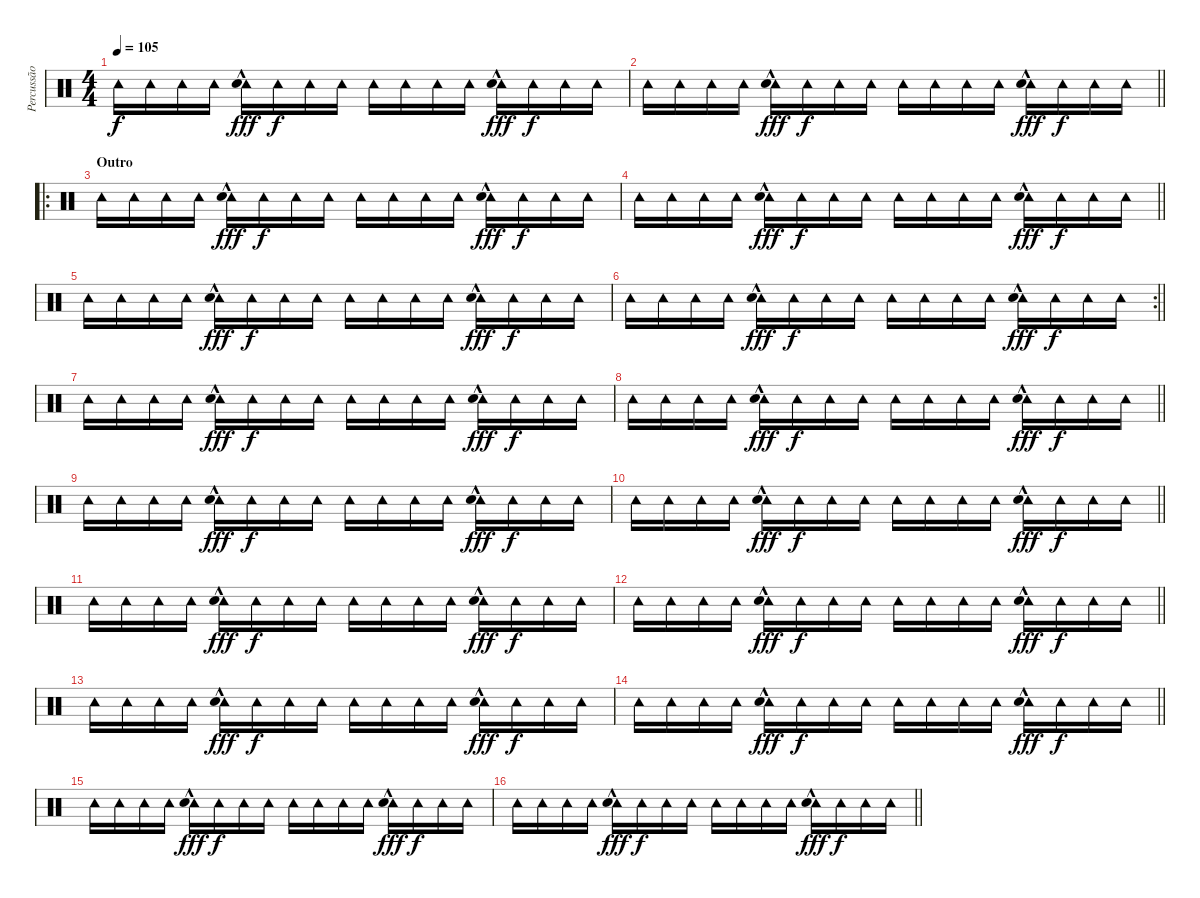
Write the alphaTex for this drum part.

\track ("Percussão" "Percussão") {instrument percussion}
\staff {score}
\articulation defaults
\ts (4 4)
\tempo 105
\clef neutral
\ks c "Tambourine (hit)".16{dy f} "Tambourine (hit)".16 "Tambourine (hit)".16 "Tambourine (hit)".16
("Tambourine (hit)" "Hand Clap (hit)"{hac}).16{dy fff} "Tambourine (hit)".16{dy f} "Tambourine (hit)".16 "Tambourine (hit)".16 "Tambourine (hit)".16 "Tambourine (hit)".16 "Tambourine (hit)".16 "Tambourine (hit)".16 ("Tambourine (hit)" "Hand Clap (hit)"{hac}).16{dy fff} "Tambourine (hit)".16{dy f} "Tambourine (hit)".16 "Tambourine (hit)".16 |
\barLineRight lightlight "Tambourine (hit)".16 "Tambourine (hit)".16 "Tambourine (hit)".16 "Tambourine (hit)".16
("Tambourine (hit)" "Hand Clap (hit)"{hac}).16{dy fff} "Tambourine (hit)".16{dy f} "Tambourine (hit)".16 "Tambourine (hit)".16 "Tambourine (hit)".16 "Tambourine (hit)".16 "Tambourine (hit)".16 "Tambourine (hit)".16 ("Tambourine (hit)" "Hand Clap (hit)"{hac}).16{dy fff} "Tambourine (hit)".16{dy f} "Tambourine (hit)".16 "Tambourine (hit)".16 |
\ro
\section ("" "Outro")
"Tambourine (hit)".16 "Tambourine (hit)".16 "Tambourine (hit)".16 "Tambourine (hit)".16 ("Tambourine (hit)" "Hand Clap (hit)"{hac}).16{dy fff} "Tambourine (hit)".16{dy f} "Tambourine (hit)".16 "Tambourine (hit)".16 "Tambourine (hit)".16 "Tambourine (hit)".16 "Tambourine (hit)".16 "Tambourine (hit)".16 ("Tambourine (hit)" "Hand Clap (hit)"{hac}).16{dy fff} "Tambourine (hit)".16{dy f} "Tambourine (hit)".16 "Tambourine (hit)".16 |
\barLineRight lightlight "Tambourine (hit)".16 "Tambourine (hit)".16 "Tambourine (hit)".16 "Tambourine (hit)".16
("Tambourine (hit)" "Hand Clap (hit)"{hac}).16{dy fff} "Tambourine (hit)".16{dy f} "Tambourine (hit)".16 "Tambourine (hit)".16 "Tambourine (hit)".16 "Tambourine (hit)".16 "Tambourine (hit)".16 "Tambourine (hit)".16 ("Tambourine (hit)" "Hand Clap (hit)"{hac}).16{dy fff} "Tambourine (hit)".16{dy f} "Tambourine (hit)".16 "Tambourine (hit)".16 |
"Tambourine (hit)".16 "Tambourine (hit)".16 "Tambourine (hit)".16 "Tambourine (hit)".16 ("Tambourine (hit)" "Hand Clap (hit)"{hac}).16{dy fff} "Tambourine (hit)".16{dy f} "Tambourine (hit)".16 "Tambourine (hit)".16 "Tambourine (hit)".16 "Tambourine (hit)".16 "Tambourine (hit)".16 "Tambourine (hit)".16 ("Tambourine (hit)" "Hand Clap (hit)"{hac}).16{dy fff} "Tambourine (hit)".16{dy f} "Tambourine (hit)".16 "Tambourine (hit)".16 |
\rc 2
\barLineRight lightlight "Tambourine (hit)".16 "Tambourine (hit)".16 "Tambourine (hit)".16 "Tambourine (hit)".16
("Tambourine (hit)" "Hand Clap (hit)"{hac}).16{dy fff} "Tambourine (hit)".16{dy f} "Tambourine (hit)".16 "Tambourine (hit)".16 "Tambourine (hit)".16 "Tambourine (hit)".16 "Tambourine (hit)".16 "Tambourine (hit)".16 ("Tambourine (hit)" "Hand Clap (hit)"{hac}).16{dy fff} "Tambourine (hit)".16{dy f} "Tambourine (hit)".16 "Tambourine (hit)".16 |
"Tambourine (hit)".16 "Tambourine (hit)".16 "Tambourine (hit)".16 "Tambourine (hit)".16 ("Tambourine (hit)" "Hand Clap (hit)"{hac}).16{dy fff} "Tambourine (hit)".16{dy f} "Tambourine (hit)".16 "Tambourine (hit)".16 "Tambourine (hit)".16 "Tambourine (hit)".16 "Tambourine (hit)".16 "Tambourine (hit)".16 ("Tambourine (hit)" "Hand Clap (hit)"{hac}).16{dy fff} "Tambourine (hit)".16{dy f} "Tambourine (hit)".16 "Tambourine (hit)".16 |
\barLineRight lightlight "Tambourine (hit)".16 "Tambourine (hit)".16 "Tambourine (hit)".16 "Tambourine (hit)".16
("Tambourine (hit)" "Hand Clap (hit)"{hac}).16{dy fff} "Tambourine (hit)".16{dy f} "Tambourine (hit)".16 "Tambourine (hit)".16 "Tambourine (hit)".16 "Tambourine (hit)".16 "Tambourine (hit)".16 "Tambourine (hit)".16 ("Tambourine (hit)" "Hand Clap (hit)"{hac}).16{dy fff} "Tambourine (hit)".16{dy f} "Tambourine (hit)".16 "Tambourine (hit)".16 |
"Tambourine (hit)".16 "Tambourine (hit)".16 "Tambourine (hit)".16 "Tambourine (hit)".16 ("Tambourine (hit)" "Hand Clap (hit)"{hac}).16{dy fff} "Tambourine (hit)".16{dy f} "Tambourine (hit)".16 "Tambourine (hit)".16 "Tambourine (hit)".16 "Tambourine (hit)".16 "Tambourine (hit)".16 "Tambourine (hit)".16 ("Tambourine (hit)" "Hand Clap (hit)"{hac}).16{dy fff} "Tambourine (hit)".16{dy f} "Tambourine (hit)".16 "Tambourine (hit)".16 |
\barLineRight lightlight "Tambourine (hit)".16 "Tambourine (hit)".16 "Tambourine (hit)".16 "Tambourine (hit)".16
("Tambourine (hit)" "Hand Clap (hit)"{hac}).16{dy fff} "Tambourine (hit)".16{dy f} "Tambourine (hit)".16 "Tambourine (hit)".16 "Tambourine (hit)".16 "Tambourine (hit)".16 "Tambourine (hit)".16 "Tambourine (hit)".16 ("Tambourine (hit)" "Hand Clap (hit)"{hac}).16{dy fff} "Tambourine (hit)".16{dy f} "Tambourine (hit)".16 "Tambourine (hit)".16 |
"Tambourine (hit)".16 "Tambourine (hit)".16 "Tambourine (hit)".16 "Tambourine (hit)".16 ("Tambourine (hit)" "Hand Clap (hit)"{hac}).16{dy fff} "Tambourine (hit)".16{dy f} "Tambourine (hit)".16 "Tambourine (hit)".16 "Tambourine (hit)".16 "Tambourine (hit)".16 "Tambourine (hit)".16 "Tambourine (hit)".16 ("Tambourine (hit)" "Hand Clap (hit)"{hac}).16{dy fff} "Tambourine (hit)".16{dy f} "Tambourine (hit)".16 "Tambourine (hit)".16 |
\barLineRight lightlight "Tambourine (hit)".16 "Tambourine (hit)".16 "Tambourine (hit)".16 "Tambourine (hit)".16
("Tambourine (hit)" "Hand Clap (hit)"{hac}).16{dy fff} "Tambourine (hit)".16{dy f} "Tambourine (hit)".16 "Tambourine (hit)".16 "Tambourine (hit)".16 "Tambourine (hit)".16 "Tambourine (hit)".16 "Tambourine (hit)".16 ("Tambourine (hit)" "Hand Clap (hit)"{hac}).16{dy fff} "Tambourine (hit)".16{dy f} "Tambourine (hit)".16 "Tambourine (hit)".16 |
"Tambourine (hit)".16 "Tambourine (hit)".16 "Tambourine (hit)".16 "Tambourine (hit)".16 ("Tambourine (hit)" "Hand Clap (hit)"{hac}).16{dy fff} "Tambourine (hit)".16{dy f} "Tambourine (hit)".16 "Tambourine (hit)".16 "Tambourine (hit)".16 "Tambourine (hit)".16 "Tambourine (hit)".16 "Tambourine (hit)".16 ("Tambourine (hit)" "Hand Clap (hit)"{hac}).16{dy fff} "Tambourine (hit)".16{dy f} "Tambourine (hit)".16 "Tambourine (hit)".16 |
\barLineRight lightlight "Tambourine (hit)".16 "Tambourine (hit)".16 "Tambourine (hit)".16 "Tambourine (hit)".16
("Tambourine (hit)" "Hand Clap (hit)"{hac}).16{dy fff} "Tambourine (hit)".16{dy f} "Tambourine (hit)".16 "Tambourine (hit)".16 "Tambourine (hit)".16 "Tambourine (hit)".16 "Tambourine (hit)".16 "Tambourine (hit)".16 ("Tambourine (hit)" "Hand Clap (hit)"{hac}).16{dy fff} "Tambourine (hit)".16{dy f} "Tambourine (hit)".16 "Tambourine (hit)".16 |
"Tambourine (hit)".16 "Tambourine (hit)".16 "Tambourine (hit)".16 "Tambourine (hit)".16 ("Tambourine (hit)" "Hand Clap (hit)"{hac}).16{dy fff} "Tambourine (hit)".16{dy f} "Tambourine (hit)".16 "Tambourine (hit)".16 "Tambourine (hit)".16 "Tambourine (hit)".16 "Tambourine (hit)".16 "Tambourine (hit)".16 ("Tambourine (hit)" "Hand Clap (hit)"{hac}).16{dy fff} "Tambourine (hit)".16{dy f} "Tambourine (hit)".16 "Tambourine (hit)".16 |
\barLineRight lightlight "Tambourine (hit)".16 "Tambourine (hit)".16 "Tambourine (hit)".16 "Tambourine (hit)".16
("Tambourine (hit)" "Hand Clap (hit)"{hac}).16{dy fff} "Tambourine (hit)".16{dy f} "Tambourine (hit)".16 "Tambourine (hit)".16 "Tambourine (hit)".16 "Tambourine (hit)".16 "Tambourine (hit)".16 "Tambourine (hit)".16 ("Tambourine (hit)" "Hand Clap (hit)"{hac}).16{dy fff} "Tambourine (hit)".16{dy f} "Tambourine (hit)".16 "Tambourine (hit)".16
